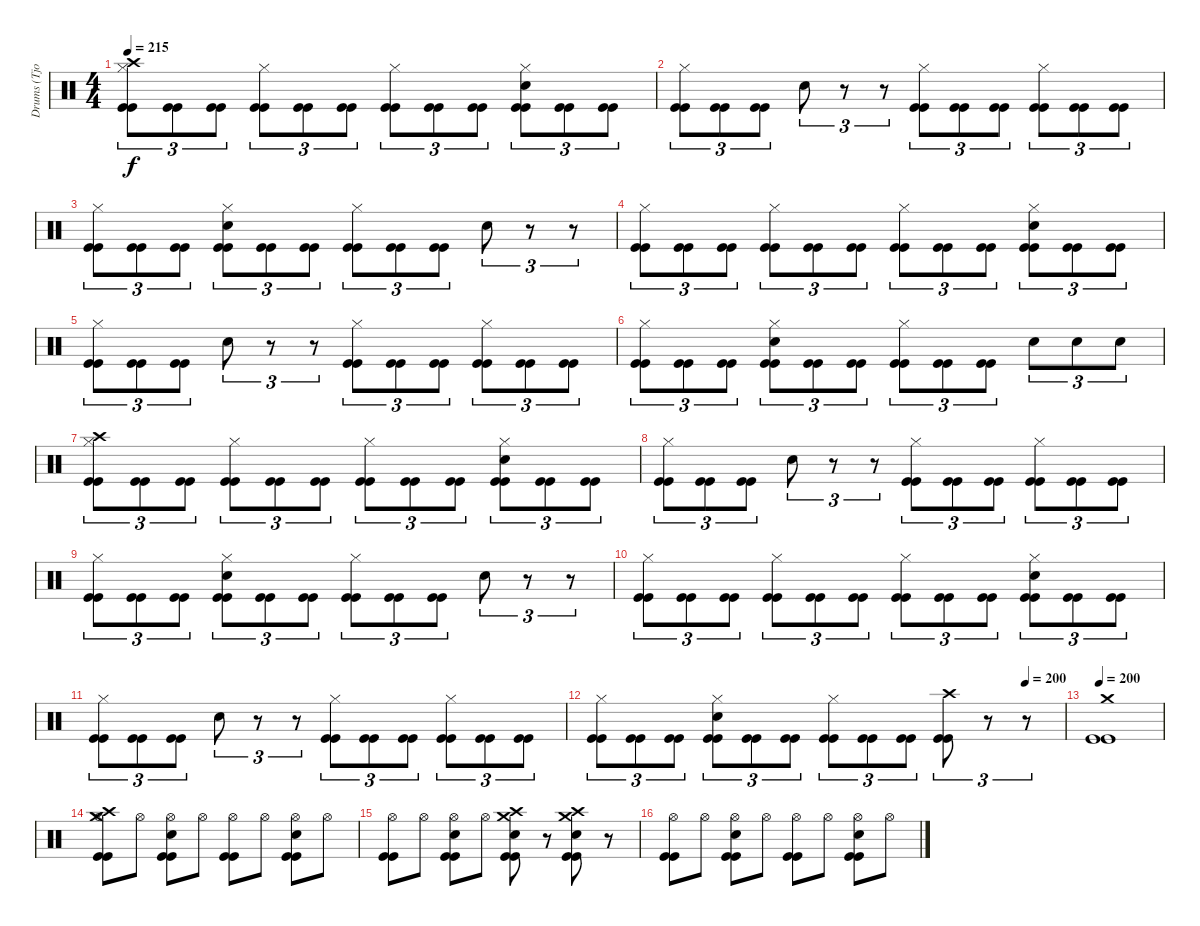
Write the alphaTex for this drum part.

\track ("Drums (Tjodalv)" "Drums (Tjo") {instrument percussion}
\staff {score}
\articulation defaults
\ts (4 4)
\tempo 215
\clef neutral
\ks c
("Crash high (hit)" "Hi-Hat (closed)" "Kick (hit)" "Kick (hit)").8{tu (3 2) dy f} ("Kick (hit)" "Kick (hit)").8{tu (3 2)} ("Kick (hit)" "Kick (hit)").8{tu (3 2)} ("Hi-Hat (closed)" "Kick (hit)" "Kick (hit)").8{tu (3 2)} ("Kick (hit)" "Kick (hit)").8{tu (3 2)} ("Kick (hit)" "Kick (hit)").8{tu (3 2)} ("Hi-Hat (closed)" "Kick (hit)" "Kick (hit)").8{tu (3 2)} ("Kick (hit)" "Kick (hit)").8{tu (3 2)} ("Kick (hit)" "Kick (hit)").8{tu (3 2)} ("Snare (hit) 2" "Hi-Hat (closed)" "Kick (hit)" "Kick (hit)").8{tu (3 2)} ("Kick (hit)" "Kick (hit)").8{tu (3 2)} ("Kick (hit)" "Kick (hit)").8{tu (3 2)} |
("Hi-Hat (closed)" "Kick (hit)" "Kick (hit)").8{tu (3 2)} ("Kick (hit)" "Kick (hit)").8{tu (3 2)} ("Kick (hit)" "Kick (hit)").8{tu (3 2)} "Snare (hit) 2".8{tu (3 2)} r.8{tu (3 2)} r.8{tu (3 2)} ("Hi-Hat (closed)" "Kick (hit)" "Kick (hit)").8{tu (3 2)} ("Kick (hit)" "Kick (hit)").8{tu (3 2)} ("Kick (hit)" "Kick (hit)").8{tu (3 2)} ("Hi-Hat (closed)" "Kick (hit)" "Kick (hit)").8{tu (3 2)} ("Kick (hit)" "Kick (hit)").8{tu (3 2)} ("Kick (hit)" "Kick (hit)").8{tu (3 2)} |
("Hi-Hat (closed)" "Kick (hit)" "Kick (hit)").8{tu (3 2)} ("Kick (hit)" "Kick (hit)").8{tu (3 2)} ("Kick (hit)" "Kick (hit)").8{tu (3 2)} ("Snare (hit) 2" "Hi-Hat (closed)" "Kick (hit)" "Kick (hit)").8{tu (3 2)} ("Kick (hit)" "Kick (hit)").8{tu (3 2)} ("Kick (hit)" "Kick (hit)").8{tu (3 2)} ("Hi-Hat (closed)" "Kick (hit)" "Kick (hit)").8{tu (3 2)} ("Kick (hit)" "Kick (hit)").8{tu (3 2)} ("Kick (hit)" "Kick (hit)").8{tu (3 2)} "Snare (hit) 2".8{tu (3 2)} r.8{tu (3 2)} r.8{tu (3 2)} |
("Hi-Hat (closed)" "Kick (hit)" "Kick (hit)").8{tu (3 2)} ("Kick (hit)" "Kick (hit)").8{tu (3 2)} ("Kick (hit)" "Kick (hit)").8{tu (3 2)} ("Hi-Hat (closed)" "Kick (hit)" "Kick (hit)").8{tu (3 2)} ("Kick (hit)" "Kick (hit)").8{tu (3 2)} ("Kick (hit)" "Kick (hit)").8{tu (3 2)} ("Hi-Hat (closed)" "Kick (hit)" "Kick (hit)").8{tu (3 2)} ("Kick (hit)" "Kick (hit)").8{tu (3 2)} ("Kick (hit)" "Kick (hit)").8{tu (3 2)} ("Snare (hit) 2" "Hi-Hat (closed)" "Kick (hit)" "Kick (hit)").8{tu (3 2)} ("Kick (hit)" "Kick (hit)").8{tu (3 2)} ("Kick (hit)" "Kick (hit)").8{tu (3 2)} |
("Hi-Hat (closed)" "Kick (hit)" "Kick (hit)").8{tu (3 2)} ("Kick (hit)" "Kick (hit)").8{tu (3 2)} ("Kick (hit)" "Kick (hit)").8{tu (3 2)} "Snare (hit) 2".8{tu (3 2)} r.8{tu (3 2)} r.8{tu (3 2)} ("Hi-Hat (closed)" "Kick (hit)" "Kick (hit)").8{tu (3 2)} ("Kick (hit)" "Kick (hit)").8{tu (3 2)} ("Kick (hit)" "Kick (hit)").8{tu (3 2)} ("Hi-Hat (closed)" "Kick (hit)" "Kick (hit)").8{tu (3 2)} ("Kick (hit)" "Kick (hit)").8{tu (3 2)} ("Kick (hit)" "Kick (hit)").8{tu (3 2)} |
("Hi-Hat (closed)" "Kick (hit)" "Kick (hit)").8{tu (3 2)} ("Kick (hit)" "Kick (hit)").8{tu (3 2)} ("Kick (hit)" "Kick (hit)").8{tu (3 2)} ("Snare (hit) 2" "Hi-Hat (closed)" "Kick (hit)" "Kick (hit)").8{tu (3 2)} ("Kick (hit)" "Kick (hit)").8{tu (3 2)} ("Kick (hit)" "Kick (hit)").8{tu (3 2)} ("Hi-Hat (closed)" "Kick (hit)" "Kick (hit)").8{tu (3 2)} ("Kick (hit)" "Kick (hit)").8{tu (3 2)} ("Kick (hit)" "Kick (hit)").8{tu (3 2)} "Snare (hit) 2".8{tu (3 2)} "Snare (hit) 2".8{tu (3 2)} "Snare (hit) 2".8{tu (3 2)} |
("Crash high (hit)" "Hi-Hat (closed)" "Kick (hit)" "Kick (hit)").8{tu (3 2)} ("Kick (hit)" "Kick (hit)").8{tu (3 2)} ("Kick (hit)" "Kick (hit)").8{tu (3 2)} ("Hi-Hat (closed)" "Kick (hit)" "Kick (hit)").8{tu (3 2)} ("Kick (hit)" "Kick (hit)").8{tu (3 2)} ("Kick (hit)" "Kick (hit)").8{tu (3 2)} ("Hi-Hat (closed)" "Kick (hit)" "Kick (hit)").8{tu (3 2)} ("Kick (hit)" "Kick (hit)").8{tu (3 2)} ("Kick (hit)" "Kick (hit)").8{tu (3 2)} ("Snare (hit) 2" "Hi-Hat (closed)" "Kick (hit)" "Kick (hit)").8{tu (3 2)} ("Kick (hit)" "Kick (hit)").8{tu (3 2)} ("Kick (hit)" "Kick (hit)").8{tu (3 2)} |
("Hi-Hat (closed)" "Kick (hit)" "Kick (hit)").8{tu (3 2)} ("Kick (hit)" "Kick (hit)").8{tu (3 2)} ("Kick (hit)" "Kick (hit)").8{tu (3 2)} "Snare (hit) 2".8{tu (3 2)} r.8{tu (3 2)} r.8{tu (3 2)} ("Hi-Hat (closed)" "Kick (hit)" "Kick (hit)").8{tu (3 2)} ("Kick (hit)" "Kick (hit)").8{tu (3 2)} ("Kick (hit)" "Kick (hit)").8{tu (3 2)} ("Hi-Hat (closed)" "Kick (hit)" "Kick (hit)").8{tu (3 2)} ("Kick (hit)" "Kick (hit)").8{tu (3 2)} ("Kick (hit)" "Kick (hit)").8{tu (3 2)} |
("Hi-Hat (closed)" "Kick (hit)" "Kick (hit)").8{tu (3 2)} ("Kick (hit)" "Kick (hit)").8{tu (3 2)} ("Kick (hit)" "Kick (hit)").8{tu (3 2)} ("Snare (hit) 2" "Hi-Hat (closed)" "Kick (hit)" "Kick (hit)").8{tu (3 2)} ("Kick (hit)" "Kick (hit)").8{tu (3 2)} ("Kick (hit)" "Kick (hit)").8{tu (3 2)} ("Hi-Hat (closed)" "Kick (hit)" "Kick (hit)").8{tu (3 2)} ("Kick (hit)" "Kick (hit)").8{tu (3 2)} ("Kick (hit)" "Kick (hit)").8{tu (3 2)} "Snare (hit) 2".8{tu (3 2)} r.8{tu (3 2)} r.8{tu (3 2)} |
("Hi-Hat (closed)" "Kick (hit)" "Kick (hit)").8{tu (3 2)} ("Kick (hit)" "Kick (hit)").8{tu (3 2)} ("Kick (hit)" "Kick (hit)").8{tu (3 2)} ("Hi-Hat (closed)" "Kick (hit)" "Kick (hit)").8{tu (3 2)} ("Kick (hit)" "Kick (hit)").8{tu (3 2)} ("Kick (hit)" "Kick (hit)").8{tu (3 2)} ("Hi-Hat (closed)" "Kick (hit)" "Kick (hit)").8{tu (3 2)} ("Kick (hit)" "Kick (hit)").8{tu (3 2)} ("Kick (hit)" "Kick (hit)").8{tu (3 2)} ("Snare (hit) 2" "Hi-Hat (closed)" "Kick (hit)" "Kick (hit)").8{tu (3 2)} ("Kick (hit)" "Kick (hit)").8{tu (3 2)} ("Kick (hit)" "Kick (hit)").8{tu (3 2)} |
("Hi-Hat (closed)" "Kick (hit)" "Kick (hit)").8{tu (3 2)} ("Kick (hit)" "Kick (hit)").8{tu (3 2)} ("Kick (hit)" "Kick (hit)").8{tu (3 2)} "Snare (hit) 2".8{tu (3 2)} r.8{tu (3 2)} r.8{tu (3 2)} ("Hi-Hat (closed)" "Kick (hit)" "Kick (hit)").8{tu (3 2)} ("Kick (hit)" "Kick (hit)").8{tu (3 2)} ("Kick (hit)" "Kick (hit)").8{tu (3 2)} ("Hi-Hat (closed)" "Kick (hit)" "Kick (hit)").8{tu (3 2)} ("Kick (hit)" "Kick (hit)").8{tu (3 2)} ("Kick (hit)" "Kick (hit)").8{tu (3 2)} |
\tempo (200 0.9166666666666666)
("Hi-Hat (closed)" "Kick (hit)" "Kick (hit)").8{tu (3 2)} ("Kick (hit)" "Kick (hit)").8{tu (3 2)} ("Kick (hit)" "Kick (hit)").8{tu (3 2)} ("Snare (hit) 2" "Hi-Hat (closed)" "Kick (hit)" "Kick (hit)").8{tu (3 2)} ("Kick (hit)" "Kick (hit)").8{tu (3 2)} ("Kick (hit)" "Kick (hit)").8{tu (3 2)} ("Hi-Hat (closed)" "Kick (hit)" "Kick (hit)").8{tu (3 2)} ("Kick (hit)" "Kick (hit)").8{tu (3 2)} ("Kick (hit)" "Kick (hit)").8{tu (3 2)} ("Crash high (hit)" "Kick (hit)" "Kick (hit)").8{tu (3 2)} r.8{tu (3 2)} r.8{tu (3 2)} |
\tempo 200
("Crash medium (hit)" "Kick (hit)" "Kick (hit)").1 |
("Crash medium (hit)" "Crash high (hit)" "Hi-Hat (open)" "Kick (hit)" "Kick (hit)").8 "Hi-Hat (open)".8 ("Snare (hit) 2" "Hi-Hat (open)" "Kick (hit)" "Kick (hit)").8 "Hi-Hat (open)".8 ("Hi-Hat (open)" "Kick (hit)" "Kick (hit)").8 "Hi-Hat (open)".8 ("Snare (hit) 2" "Hi-Hat (open)" "Kick (hit)" "Kick (hit)").8 "Hi-Hat (open)".8 |
("Hi-Hat (open)" "Kick (hit)" "Kick (hit)").8 "Hi-Hat (open)".8 ("Snare (hit) 2" "Hi-Hat (open)" "Kick (hit)" "Kick (hit)").8 "Hi-Hat (open)".8 ("Crash medium (hit)" "Crash high (hit)" "Snare (hit) 2" "Kick (hit)" "Kick (hit)").8 r.8 ("Crash medium (hit)" "Crash high (hit)" "Snare (hit) 2" "Kick (hit)" "Kick (hit)").8 r.8 |
("Hi-Hat (open)" "Kick (hit)" "Kick (hit)").8 "Hi-Hat (open)".8 ("Snare (hit) 2" "Hi-Hat (open)" "Kick (hit)" "Kick (hit)").8 "Hi-Hat (open)".8 ("Hi-Hat (open)" "Kick (hit)" "Kick (hit)").8 "Hi-Hat (open)".8 ("Snare (hit) 2" "Hi-Hat (open)" "Kick (hit)" "Kick (hit)").8 "Hi-Hat (open)".8
